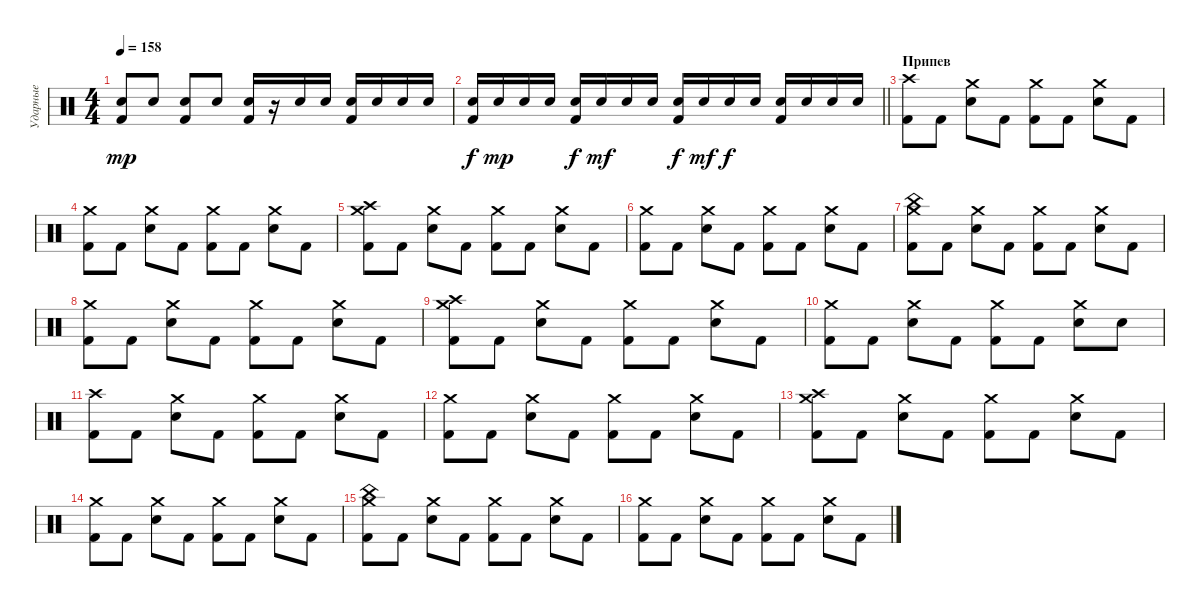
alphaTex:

\track ("Ударные" "Ударные") {instrument percussion}
\staff {score}
\articulation defaults
\ts (4 4)
\tempo 158
\clef neutral
\ks c
("Electric Snare (hit)" "Kick (hit) 2").8{dy mp} "Electric Snare (hit)".8 ("Electric Snare (hit)" "Kick (hit) 2").8 "Electric Snare (hit)".8 ("Electric Snare (hit)" "Kick (hit) 2").16 r.16 "Electric Snare (hit)".16 "Electric Snare (hit)".16 ("Electric Snare (hit)" "Kick (hit) 2").16 "Electric Snare (hit)".16 "Electric Snare (hit)".16 "Electric Snare (hit)".16 |
\barLineRight lightlight
("Electric Snare (hit)" "Kick (hit) 2").16{dy f} "Electric Snare (hit)".16{dy mp} "Electric Snare (hit)".16 "Electric Snare (hit)".16 ("Electric Snare (hit)" "Kick (hit) 2").16{dy f} "Electric Snare (hit)".16{dy mf} "Electric Snare (hit)".16 "Electric Snare (hit)".16 ("Electric Snare (hit)" "Kick (hit) 2").16{dy f} "Electric Snare (hit)".16{dy mf} "Electric Snare (hit)".16{dy f} "Electric Snare (hit)".16 ("Electric Snare (hit)" "Kick (hit) 2").16 "Electric Snare (hit)".16 "Electric Snare (hit)".16 "Electric Snare (hit)".16 |
\section ("" "Припев")
("Crash high (hit)" "Kick (hit) 2").8 "Kick (hit) 2".8 ("Crash medium (hit)" "Electric Snare (hit)").8 "Kick (hit) 2".8 ("Crash medium (hit)" "Kick (hit) 2").8 "Kick (hit) 2".8 ("Crash medium (hit)" "Electric Snare (hit)").8 "Kick (hit) 2".8 |
("Crash medium (hit)" "Kick (hit) 2").8 "Kick (hit) 2".8 ("Crash medium (hit)" "Electric Snare (hit)").8 "Kick (hit) 2".8 ("Crash medium (hit)" "Kick (hit) 2").8 "Kick (hit) 2".8 ("Crash medium (hit)" "Electric Snare (hit)").8 "Kick (hit) 2".8 |
("Crash medium (hit)" "Crash high (hit)" "Kick (hit) 2").8 "Kick (hit) 2".8 ("Crash medium (hit)" "Electric Snare (hit)").8 "Kick (hit) 2".8 ("Crash medium (hit)" "Kick (hit) 2").8 "Kick (hit) 2".8 ("Crash medium (hit)" "Electric Snare (hit)").8 "Kick (hit) 2".8 |
("Crash medium (hit)" "Kick (hit) 2").8 "Kick (hit) 2".8 ("Crash medium (hit)" "Electric Snare (hit)").8 "Kick (hit) 2".8 ("Crash medium (hit)" "Kick (hit) 2").8 "Kick (hit) 2".8 ("Crash medium (hit)" "Electric Snare (hit)").8 "Kick (hit) 2".8 |
("Crash medium (hit)" "China (hit)" "Kick (hit) 2").8 "Kick (hit) 2".8 ("Crash medium (hit)" "Electric Snare (hit)").8 "Kick (hit) 2".8 ("Crash medium (hit)" "Kick (hit) 2").8 "Kick (hit) 2".8 ("Crash medium (hit)" "Electric Snare (hit)").8 "Kick (hit) 2".8 |
("Crash medium (hit)" "Kick (hit) 2").8 "Kick (hit) 2".8 ("Crash medium (hit)" "Electric Snare (hit)").8 "Kick (hit) 2".8 ("Crash medium (hit)" "Kick (hit) 2").8 "Kick (hit) 2".8 ("Crash medium (hit)" "Electric Snare (hit)").8 "Kick (hit) 2".8 |
("Crash medium (hit)" "Crash high (hit)" "Kick (hit) 2").8 "Kick (hit) 2".8 ("Crash medium (hit)" "Electric Snare (hit)").8 "Kick (hit) 2".8 ("Crash medium (hit)" "Kick (hit) 2").8 "Kick (hit) 2".8 ("Crash medium (hit)" "Electric Snare (hit)").8 "Kick (hit) 2".8 |
("Crash medium (hit)" "Kick (hit) 2").8 "Kick (hit) 2".8 ("Crash medium (hit)" "Electric Snare (hit)").8 "Kick (hit) 2".8 ("Crash medium (hit)" "Kick (hit) 2").8 "Kick (hit) 2".8 ("Crash medium (hit)" "Electric Snare (hit)").8 "Electric Snare (hit)".8 |
("Crash high (hit)" "Kick (hit) 2").8 "Kick (hit) 2".8 ("Crash medium (hit)" "Electric Snare (hit)").8 "Kick (hit) 2".8 ("Crash medium (hit)" "Kick (hit) 2").8 "Kick (hit) 2".8 ("Crash medium (hit)" "Electric Snare (hit)").8 "Kick (hit) 2".8 |
("Crash medium (hit)" "Kick (hit) 2").8 "Kick (hit) 2".8 ("Crash medium (hit)" "Electric Snare (hit)").8 "Kick (hit) 2".8 ("Crash medium (hit)" "Kick (hit) 2").8 "Kick (hit) 2".8 ("Crash medium (hit)" "Electric Snare (hit)").8 "Kick (hit) 2".8 |
("Crash medium (hit)" "Crash high (hit)" "Kick (hit) 2").8 "Kick (hit) 2".8 ("Crash medium (hit)" "Electric Snare (hit)").8 "Kick (hit) 2".8 ("Crash medium (hit)" "Kick (hit) 2").8 "Kick (hit) 2".8 ("Crash medium (hit)" "Electric Snare (hit)").8 "Kick (hit) 2".8 |
("Crash medium (hit)" "Kick (hit) 2").8 "Kick (hit) 2".8 ("Crash medium (hit)" "Electric Snare (hit)").8 "Kick (hit) 2".8 ("Crash medium (hit)" "Kick (hit) 2").8 "Kick (hit) 2".8 ("Crash medium (hit)" "Electric Snare (hit)").8 "Kick (hit) 2".8 |
("Crash medium (hit)" "China (hit)" "Kick (hit) 2").8 "Kick (hit) 2".8 ("Crash medium (hit)" "Electric Snare (hit)").8 "Kick (hit) 2".8 ("Crash medium (hit)" "Kick (hit) 2").8 "Kick (hit) 2".8 ("Crash medium (hit)" "Electric Snare (hit)").8 "Kick (hit) 2".8 |
("Crash medium (hit)" "Kick (hit) 2").8 "Kick (hit) 2".8 ("Crash medium (hit)" "Electric Snare (hit)").8 "Kick (hit) 2".8 ("Crash medium (hit)" "Kick (hit) 2").8 "Kick (hit) 2".8 ("Crash medium (hit)" "Electric Snare (hit)").8 "Kick (hit) 2".8
